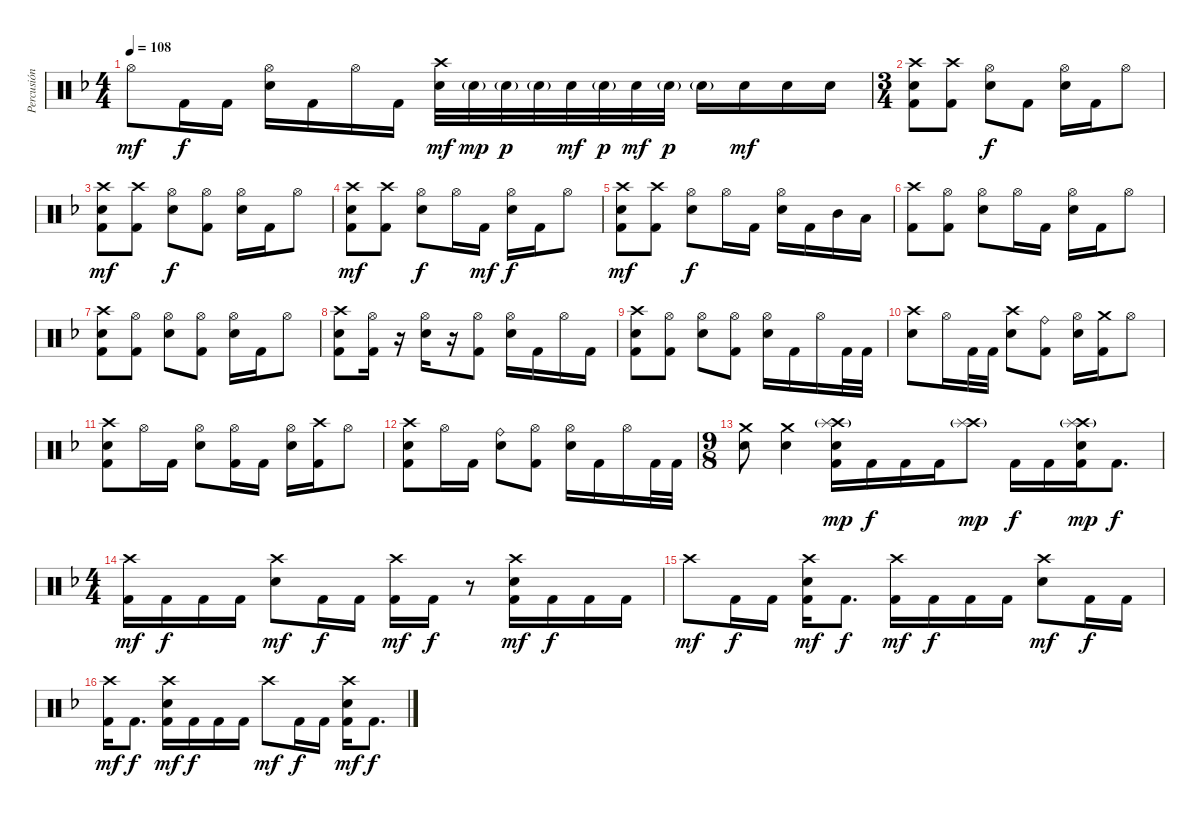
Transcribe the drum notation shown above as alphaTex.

\track ("Percusión" "Percusión") {instrument percussion}
\staff {score}
\articulation defaults
\ts (4 4)
\tempo 108
\clef neutral
\ks f "Hi-Hat (open)".8{dy mf} "Kick (hit) 2".16{dy f} "Kick (hit) 2".16
("Hi-Hat (open)" "Snare (hit) 2").16 "Kick (hit) 2".16 "Hi-Hat (open)".16 "Kick (hit) 2".16 ("Crash high (hit)" "Snare (hit) 2").32{dy mf} "Snare (hit) 2"{g}.32{dy mp} "Snare (hit) 2"{g}.32{dy p} "Snare (hit) 2"{g}.32 "Snare (hit) 2".32{dy mf} "Snare (hit) 2"{g}.32{dy p} "Snare (hit) 2".32{dy mf} "Snare (hit) 2"{g}.32{dy p} "Snare (hit) 2"{g}.16 "Snare (hit) 2".16{dy mf} "Snare (hit) 2".16 "Snare (hit) 2".16 |
\ts (3 4)
("Crash high (hit)" "Snare (hit) 2" "Kick (hit) 2").8 ("Crash high (hit)" "Kick (hit) 2").8 ("Hi-Hat (open)" "Snare (hit) 2").8{dy f} "Kick (hit) 2".8 ("Hi-Hat (open)" "Snare (hit) 2").16 "Kick (hit) 2".16 "Hi-Hat (open)".8 |
("Crash high (hit)" "Snare (hit) 2" "Kick (hit) 2").8{dy mf} ("Crash high (hit)" "Kick (hit) 2").8 ("Hi-Hat (open)" "Snare (hit) 2").8{dy f} ("Hi-Hat (open)" "Kick (hit) 2").8 ("Hi-Hat (open)" "Snare (hit) 2").16 "Kick (hit) 2".16 "Hi-Hat (open)".8 |
("Crash high (hit)" "Snare (hit) 2" "Kick (hit) 2").8{dy mf} ("Crash high (hit)" "Kick (hit) 2").8 ("Hi-Hat (open)" "Snare (hit) 2").8{dy f} "Hi-Hat (open)".16 "Kick (hit) 2".16{dy mf} ("Hi-Hat (open)" "Snare (hit) 2").16{dy f} "Kick (hit) 2".16 "Hi-Hat (open)".8 |
("Crash high (hit)" "Snare (hit) 2" "Kick (hit) 2").8{dy mf} ("Crash high (hit)" "Kick (hit) 2").8 ("Hi-Hat (open)" "Snare (hit) 2").8{dy f} "Hi-Hat (open)".16 "Kick (hit) 2".16 ("Hi-Hat (open)" "Snare (hit) 2").16 "Kick (hit) 2".16 "Mid Tom (hit)".16 "Low Tom (hit)".16 |
("Crash high (hit)" "Kick (hit) 2").8 ("Hi-Hat (open)" "Kick (hit) 2").8 ("Hi-Hat (open)" "Snare (hit) 2").8 "Hi-Hat (open)".16 "Kick (hit) 2".16 ("Hi-Hat (open)" "Snare (hit) 2").16 "Kick (hit) 2".16 "Hi-Hat (open)".8 |
("Crash high (hit)" "Snare (hit) 2" "Kick (hit) 2").8 ("Hi-Hat (open)" "Kick (hit) 2").8 ("Hi-Hat (open)" "Snare (hit) 2").8 ("Hi-Hat (open)" "Kick (hit) 2").8 ("Hi-Hat (open)" "Snare (hit) 2").16 "Kick (hit) 2".16 "Hi-Hat (open)".8 |
("Crash high (hit)" "Snare (hit) 2" "Kick (hit) 2").8 ("Hi-Hat (open)" "Kick (hit) 2").16 r.16 ("Hi-Hat (open)" "Snare (hit) 2").16 r.16 ("Hi-Hat (open)" "Kick (hit) 2").8 ("Hi-Hat (open)" "Snare (hit) 2").16 "Kick (hit) 2".16 "Hi-Hat (open)".16 "Kick (hit) 2".16 |
("Crash high (hit)" "Snare (hit) 2" "Kick (hit) 2").8 ("Hi-Hat (open)" "Kick (hit) 2").8 ("Hi-Hat (open)" "Snare (hit) 2").8 ("Hi-Hat (open)" "Kick (hit) 2").8 ("Hi-Hat (open)" "Snare (hit) 2").16 "Kick (hit) 2".16 "Hi-Hat (open)".16 "Kick (hit) 2".32 "Kick (hit) 2".32 |
("Crash high (hit)" "Snare (hit) 2").8 "Hi-Hat (open)".16 "Kick (hit) 2".32 "Kick (hit) 2".32 ("Crash high (hit)" "Snare (hit) 2").8 ("Ride (bell)" "Kick (hit) 2").8 ("Hi-Hat (open)" "Snare (hit) 2").16 ("Crash medium (hit)" "Kick (hit) 2").16 "Hi-Hat (open)".8 |
("Crash high (hit)" "Snare (hit) 2" "Kick (hit) 2").8 "Hi-Hat (open)".16 "Kick (hit) 2".16 ("Hi-Hat (open)" "Snare (hit) 2").8 ("Hi-Hat (open)" "Kick (hit) 2").16 "Kick (hit) 2".16 ("Hi-Hat (open)" "Snare (hit) 2").16 ("Crash high (hit)" "Kick (hit) 2").16 "Hi-Hat (open)".8 |
("Crash high (hit)" "Snare (hit) 2" "Kick (hit) 2").8 "Hi-Hat (open)".16 "Kick (hit) 2".16 ("Ride (bell)" "Snare (hit) 2").8 ("Hi-Hat (open)" "Kick (hit) 2").8 ("Hi-Hat (open)" "Snare (hit) 2").16 "Kick (hit) 2".16 "Hi-Hat (open)".16 "Kick (hit) 2".32 "Kick (hit) 2".32 |
\ts (9 8)
("Crash medium (hit)" "Snare (hit) 2").8 ("Crash medium (hit)" "Snare (hit) 2").4 ("Crash high (hit)"{g} "Splash (hit)" "Snare (hit) 2" "Kick (hit) 2").16{dy mp} "Kick (hit) 2".16{dy f} "Kick (hit) 2".16 "Kick (hit) 2".16 ("Crash high (hit)"{g} "Splash (hit)").8{dy mp} "Kick (hit) 2".16{dy f} "Kick (hit) 2".16 ("Crash high (hit)"{g} "Splash (hit)" "Snare (hit) 2" "Kick (hit) 2").16{dy mp} "Kick (hit) 2".8{d dy f} |
\ts (4 4)
("Crash high (hit)" "Kick (hit) 2").16{dy mf} "Kick (hit) 2".16{dy f} "Kick (hit) 2".16 "Kick (hit) 2".16 ("Crash high (hit)" "Snare (hit) 2").8{dy mf} "Kick (hit) 2".16{dy f} "Kick (hit) 2".16 ("Crash high (hit)" "Kick (hit) 2").16{dy mf} "Kick (hit) 2".16{dy f} r.8 ("Crash high (hit)" "Snare (hit) 2" "Kick (hit) 2").16{dy mf} "Kick (hit) 2".16{dy f} "Kick (hit) 2".16 "Kick (hit) 2".16 |
"Crash high (hit)".8{dy mf} "Kick (hit) 2".16{dy f} "Kick (hit) 2".16 ("Crash high (hit)" "Snare (hit) 2" "Kick (hit) 2").16{dy mf} "Kick (hit) 2".8{d dy f} ("Crash high (hit)" "Kick (hit) 2").16{dy mf} "Kick (hit) 2".16{dy f} "Kick (hit) 2".16 "Kick (hit) 2".16 ("Crash high (hit)" "Snare (hit) 2").8{dy mf} "Kick (hit) 2".16{dy f} "Kick (hit) 2".16 |
("Crash high (hit)" "Kick (hit) 2").16{dy mf} "Kick (hit) 2".8{d dy f} ("Crash high (hit)" "Snare (hit) 2" "Kick (hit) 2").16{dy mf} "Kick (hit) 2".16{dy f} "Kick (hit) 2".16 "Kick (hit) 2".16 "Crash high (hit)".8{dy mf} "Kick (hit) 2".16{dy f} "Kick (hit) 2".16 ("Crash high (hit)" "Snare (hit) 2" "Kick (hit) 2").16{dy mf} "Kick (hit) 2".8{d dy f}
